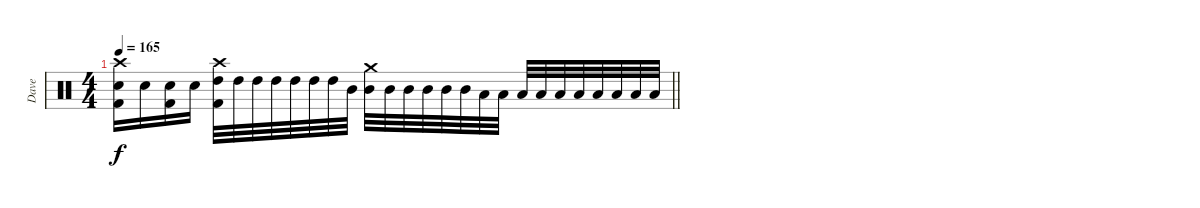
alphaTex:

\track ("Dave" "Dave") {mute instrument percussion}
\staff
\articulation defaults
\ts (4 4)
\tempo 165
\clef neutral
\barLineRight lightlight
\ks c
("Crash high (hit)" "Snare (hit) 2" "Kick (hit) 2").16{dy f} "Snare (hit) 2".16 ("Snare (hit) 2" "Kick (hit) 2").16 "Snare (hit) 2".16 ("Crash high (hit)" "High Tom (hit)" "Kick (hit) 2").32 "High Tom (hit)".32 "High Tom (hit)".32 "High Tom (hit)".32 "High Tom (hit)".32 "High Tom (hit)".32 "High Tom (hit)".32 "Mid Tom (hit)".32 ("Crash medium (hit)" "Mid Tom (hit)").32 "Mid Tom (hit)".32 "Mid Tom (hit)".32 "Mid Tom (hit)".32 "Mid Tom (hit)".32 "Mid Tom (hit)".32 "Low Tom (hit)".32 "Low Tom (hit)".32 "Low Tom (hit)".32 "Low Tom (hit)".32 "Low Tom (hit)".32 "Low Tom (hit)".32 "Low Tom (hit)".32 "Low Tom (hit)".32 "Low Tom (hit)".32 "Low Tom (hit)".32
